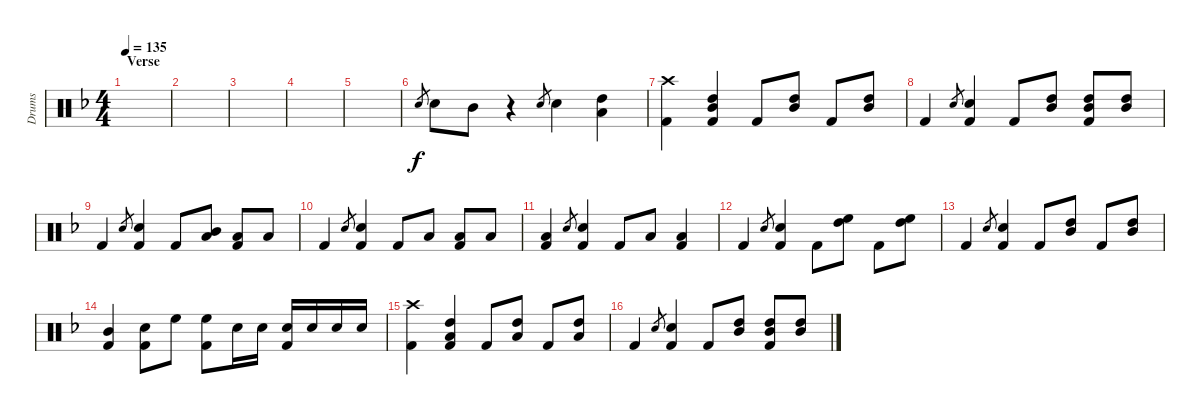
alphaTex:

\track ("Drums" "Drums") {instrument percussion}
\staff {score}
\articulation defaults
\ts (4 4)
\section ("" "Verse")
\tempo 135
\clef neutral
\ks f
|
|
|
|
|
"Snare (hit) 2".8{gr} "Snare (hit) 2".8 "Mid Tom (hit)".8 r.4 "Snare (hit) 2".8{gr} "Snare (hit) 2".4 ("High Tom (hit)" "Low Tom (hit)").4 |
("Crash high (hit)" "Kick (hit) 2").4 ("High Tom (hit)" "Mid Tom (hit)" "Kick (hit) 2").4 "Kick (hit) 2".8 ("High Tom (hit)" "Mid Tom (hit)").8 "Kick (hit) 2".8 ("High Tom (hit)" "Mid Tom (hit)").8 |
"Kick (hit) 2".4 "Snare (hit) 2".8{gr} ("Snare (hit) 2" "Kick (hit) 2").4 "Kick (hit) 2".8 ("High Tom (hit)" "Mid Tom (hit)").8 ("High Tom (hit)" "Mid Tom (hit)" "Kick (hit) 2").8 ("High Tom (hit)" "Mid Tom (hit)").8 |
"Kick (hit) 2".4 "Snare (hit) 2".8{gr} ("Snare (hit) 2" "Kick (hit) 2").4 "Kick (hit) 2".8 ("Mid Tom (hit)" "Low Tom (hit)").8 ("Low Tom (hit)" "Kick (hit) 2").8 "Low Tom (hit)".8 |
"Kick (hit) 2".4 "Snare (hit) 2".8{gr} ("Snare (hit) 2" "Kick (hit) 2").4 "Kick (hit) 2".8 "Low Tom (hit)".8 ("Low Tom (hit)" "Kick (hit) 2").8 "Low Tom (hit)".8 |
("Low Tom (hit)" "Kick (hit) 2").4 "Snare (hit) 2".8{gr} ("Snare (hit) 2" "Kick (hit) 2").4 "Kick (hit) 2".8 "Low Tom (hit)".8 ("Low Tom (hit)" "Kick (hit) 2").4 |
"Kick (hit) 2".4 "Snare (hit) 2".8{gr} ("Snare (hit) 2" "Kick (hit) 2").4 "Kick (hit) 2".8 ("High Tom (hit)" "High Floor Tom (hit)").8 "Kick (hit) 2".8 ("High Tom (hit)" "High Floor Tom (hit)").8 |
"Kick (hit) 2".4 "Snare (hit) 2".8{gr} ("Snare (hit) 2" "Kick (hit) 2").4 "Kick (hit) 2".8 ("High Tom (hit)" "Mid Tom (hit)").8 "Kick (hit) 2".8 ("High Tom (hit)" "Mid Tom (hit)").8 |
("Mid Tom (hit)" "Kick (hit) 2").4 ("Snare (hit) 2" "Kick (hit) 2").8 "High Floor Tom (hit)".8 ("High Floor Tom (hit)" "Kick (hit) 2").8 "Snare (hit) 2".16 "Snare (hit) 2".16 ("Snare (hit) 2" "Kick (hit) 2").16 "Snare (hit) 2".16 "Snare (hit) 2".16 "Snare (hit) 2".16 |
("Crash high (hit)" "Kick (hit) 2").4 ("High Tom (hit)" "Low Tom (hit)" "Kick (hit) 2").4 "Kick (hit) 2".8 ("High Tom (hit)" "Low Tom (hit)").8 "Kick (hit) 2".8 ("High Tom (hit)" "Low Tom (hit)").8 |
"Kick (hit) 2".4 "Snare (hit) 2".8{gr} ("Snare (hit) 2" "Kick (hit) 2").4 "Kick (hit) 2".8 ("High Tom (hit)" "Mid Tom (hit)").8 ("High Tom (hit)" "Mid Tom (hit)" "Kick (hit) 2").8 ("High Tom (hit)" "Mid Tom (hit)").8
